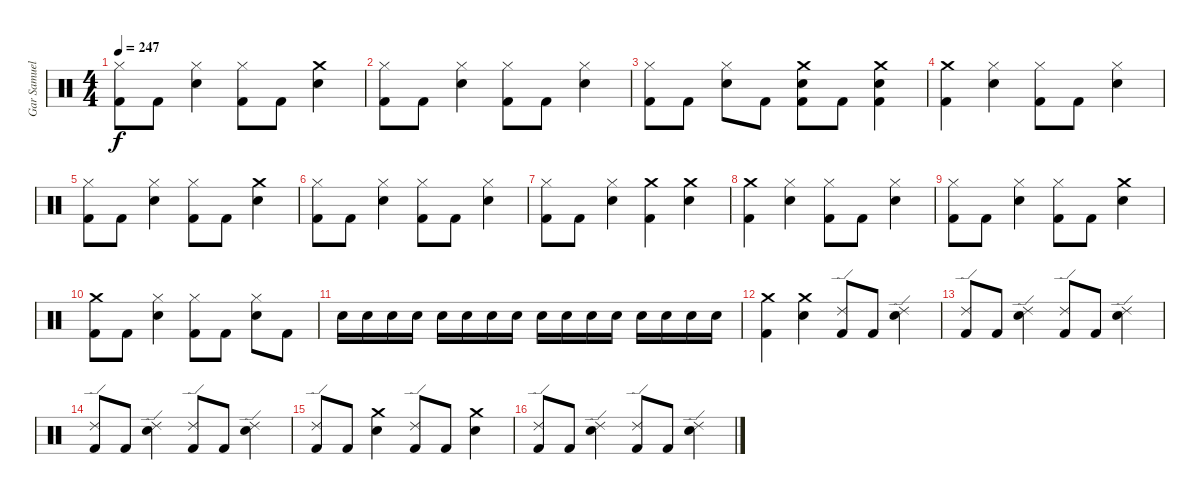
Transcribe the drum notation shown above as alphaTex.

\track ("Gar Samuelson (Drums)" "Gar Samuel") {instrument percussion}
\staff {score}
\articulation defaults
\ts (4 4)
\tempo 247
\clef neutral
\ks c
("Hi-Hat (closed)" "Kick (hit) 2").8{dy f} "Kick (hit) 2".8 ("Snare (hit) 2" "Hi-Hat (closed)").4 ("Hi-Hat (closed)" "Kick (hit) 2").8 "Kick (hit) 2".8 ("Crash medium (hit)" "Snare (hit) 2").4 |
("Hi-Hat (closed)" "Kick (hit) 2").8 "Kick (hit) 2".8 ("Snare (hit) 2" "Hi-Hat (closed)").4 ("Hi-Hat (closed)" "Kick (hit) 2").8 "Kick (hit) 2".8 ("Snare (hit) 2" "Hi-Hat (closed)").4 |
("Hi-Hat (closed)" "Kick (hit) 2").8 "Kick (hit) 2".8 ("Snare (hit) 2" "Hi-Hat (closed)").8 "Kick (hit) 2".8 ("Snare (hit) 2" "Crash medium (hit)" "Kick (hit) 2").8 "Kick (hit) 2".8 ("Kick (hit) 2" "Crash medium (hit)" "Snare (hit) 2").4 |
("Kick (hit) 2" "Crash medium (hit)").4 ("Hi-Hat (closed)" "Snare (hit) 2").4 ("Hi-Hat (closed)" "Kick (hit) 2").8 "Kick (hit) 2".8 ("Snare (hit) 2" "Hi-Hat (closed)").4 |
("Hi-Hat (closed)" "Kick (hit) 2").8 "Kick (hit) 2".8 ("Snare (hit) 2" "Hi-Hat (closed)").4 ("Hi-Hat (closed)" "Kick (hit) 2").8 "Kick (hit) 2".8 ("Crash medium (hit)" "Snare (hit) 2").4 |
("Hi-Hat (closed)" "Kick (hit) 2").8 "Kick (hit) 2".8 ("Snare (hit) 2" "Hi-Hat (closed)").4 ("Hi-Hat (closed)" "Kick (hit) 2").8 "Kick (hit) 2".8 ("Snare (hit) 2" "Hi-Hat (closed)").4 |
("Hi-Hat (closed)" "Kick (hit) 2").8 "Kick (hit) 2".8 ("Snare (hit) 2" "Hi-Hat (closed)").4 ("Crash medium (hit)" "Kick (hit) 2").4 ("Crash medium (hit)" "Snare (hit) 2").4 |
("Kick (hit) 2" "Crash medium (hit)").4 ("Hi-Hat (closed)" "Snare (hit) 2").4 ("Hi-Hat (closed)" "Kick (hit) 2").8 "Kick (hit) 2".8 ("Snare (hit) 2" "Hi-Hat (closed)").4 |
("Hi-Hat (closed)" "Kick (hit) 2").8 "Kick (hit) 2".8 ("Snare (hit) 2" "Hi-Hat (closed)").4 ("Hi-Hat (closed)" "Kick (hit) 2").8 "Kick (hit) 2".8 ("Crash medium (hit)" "Snare (hit) 2").4 |
("Crash medium (hit)" "Kick (hit) 2").8 "Kick (hit) 2".8 ("Snare (hit) 2" "Hi-Hat (closed)").4 ("Hi-Hat (closed)" "Kick (hit) 2").8 "Kick (hit) 2".8 ("Snare (hit) 2" "Hi-Hat (closed)").8 "Kick (hit) 2".8 |
"Snare (hit) 2".16 "Snare (hit) 2".16 "Snare (hit) 2".16 "Snare (hit) 2".16 "Snare (hit) 2".16 "Snare (hit) 2".16 "Snare (hit) 2".16 "Snare (hit) 2".16 "Snare (hit) 2".16 "Snare (hit) 2".16 "Snare (hit) 2".16 "Snare (hit) 2".16 "Snare (hit) 2".16 "Snare (hit) 2".16 "Snare (hit) 2".16 "Snare (hit) 2".16 |
("Kick (hit) 2" "Crash medium (hit)").4 ("Snare (hit) 2" "Crash medium (hit)").4 ("Kick (hit) 2" "Ride (edge) 2").8 "Kick (hit) 2".8 ("Snare (hit) 2" "Ride (edge) 2").4 |
("Ride (edge) 2" "Kick (hit) 2").8 "Kick (hit) 2".8 ("Snare (hit) 2" "Ride (edge) 2").4 ("Ride (edge) 2" "Kick (hit) 2").8 "Kick (hit) 2".8 ("Snare (hit) 2" "Ride (edge) 2").4 |
("Ride (edge) 2" "Kick (hit) 2").8 "Kick (hit) 2".8 ("Snare (hit) 2" "Ride (edge) 2").4 ("Ride (edge) 2" "Kick (hit) 2").8 "Kick (hit) 2".8 ("Snare (hit) 2" "Ride (edge) 2").4 |
("Ride (edge) 2" "Kick (hit) 2").8 "Kick (hit) 2".8 ("Snare (hit) 2" "Crash medium (hit)").4 ("Ride (edge) 2" "Kick (hit) 2").8 "Kick (hit) 2".8 ("Snare (hit) 2" "Crash medium (hit)").4 |
("Ride (edge) 2" "Kick (hit) 2").8 "Kick (hit) 2".8 ("Snare (hit) 2" "Ride (edge) 2").4 ("Ride (edge) 2" "Kick (hit) 2").8 "Kick (hit) 2".8 ("Snare (hit) 2" "Ride (edge) 2").4
